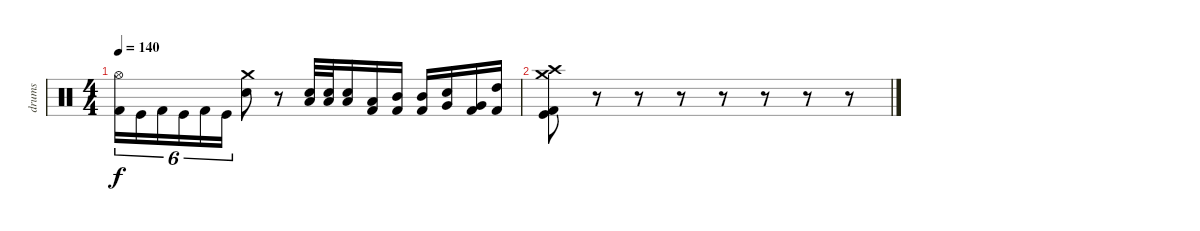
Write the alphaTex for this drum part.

\track ("drums" "drums") {instrument percussion}
\staff {score}
\articulation defaults
\ts (4 4)
\tempo 140
\clef neutral
\ks c
("Hi-Hat (open)" "Kick (hit) 2").16{tu (6 4) dy f} "Kick (hit)".16{tu (6 4)} "Kick (hit) 2".16{tu (6 4)} "Kick (hit)".16{tu (6 4)} "Kick (hit) 2".16{tu (6 4)} "Kick (hit)".16{tu (6 4)} ("Crash medium (hit)" "Snare (hit) 2").8 r.8 ("Low Floor Tom (hit)" "Snare (hit) 2").32 ("Low Floor Tom (hit)" "Snare (hit) 2").32 ("Low Tom (hit)" "Snare (hit) 2").16 ("Low Tom (hit)" "Kick (hit) 2").16 ("Mid Tom (hit)" "Kick (hit) 2").16 ("Mid Tom (hit)" "Kick (hit) 2").16 ("Very Low Tom (hit)" "Snare (hit) 2").16 ("Very Low Tom (hit)" "Kick (hit) 2").16 ("High Tom (hit)" "Kick (hit) 2").16 |
("Crash high (hit)" "Crash medium (hit)" "Kick (hit) 2" "Kick (hit)").8 r.8 r.8 r.8 r.8 r.8 r.8 r.8
